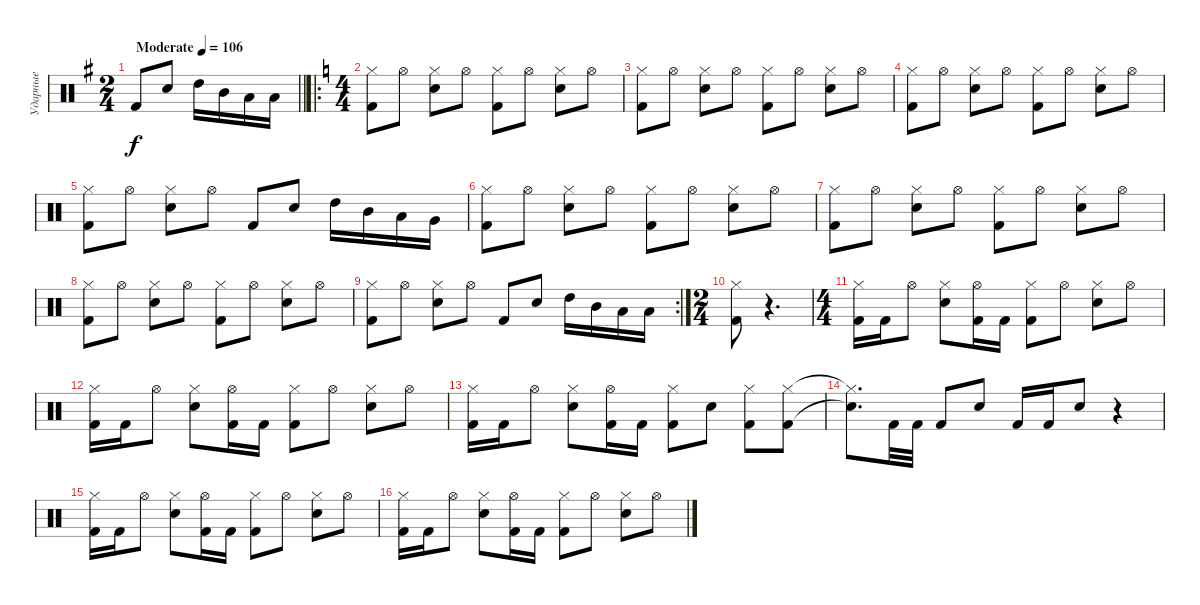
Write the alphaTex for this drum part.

\track ("Ударные" "Ударные") {instrument percussion}
\staff {score}
\articulation defaults
\ts (2 4)
\tempo (106 "Moderate")
\clef neutral
\barLineRight lightlight
\ks g "Kick (hit) 2".8{dy f} "Electric Snare (hit)".8 "High Tom (hit)".16 "Mid Tom (hit)".16 "Low Tom (hit)".16 "Low Tom (hit)".16
|
\ro
\ts (4 4)
\ks c
("Hi-Hat (closed)" "Kick (hit) 2").8 "Hi-Hat (open)".8 ("Hi-Hat (closed)" "Electric Snare (hit)").8 "Hi-Hat (open)".8 ("Hi-Hat (closed)" "Kick (hit) 2").8 "Hi-Hat (open)".8 ("Hi-Hat (closed)" "Electric Snare (hit)").8 "Hi-Hat (open)".8 |
("Hi-Hat (closed)" "Kick (hit) 2").8 "Hi-Hat (open)".8 ("Hi-Hat (closed)" "Electric Snare (hit)").8 "Hi-Hat (open)".8 ("Hi-Hat (closed)" "Kick (hit) 2").8 "Hi-Hat (open)".8 ("Hi-Hat (closed)" "Electric Snare (hit)").8 "Hi-Hat (open)".8 |
("Hi-Hat (closed)" "Kick (hit) 2").8 "Hi-Hat (open)".8 ("Hi-Hat (closed)" "Electric Snare (hit)").8 "Hi-Hat (open)".8 ("Hi-Hat (closed)" "Kick (hit) 2").8 "Hi-Hat (open)".8 ("Hi-Hat (closed)" "Electric Snare (hit)").8 "Hi-Hat (open)".8 |
("Hi-Hat (closed)" "Kick (hit) 2").8 "Hi-Hat (open)".8 ("Hi-Hat (closed)" "Electric Snare (hit)").8 "Hi-Hat (open)".8 "Kick (hit) 2".8 "Electric Snare (hit)".8 "High Tom (hit)".16 "Mid Tom (hit)".16 "Low Tom (hit)".16 "Very Low Tom (hit)".16 |
("Hi-Hat (closed)" "Kick (hit) 2").8 "Hi-Hat (open)".8 ("Hi-Hat (closed)" "Electric Snare (hit)").8 "Hi-Hat (open)".8 ("Hi-Hat (closed)" "Kick (hit) 2").8 "Hi-Hat (open)".8 ("Hi-Hat (closed)" "Electric Snare (hit)").8 "Hi-Hat (open)".8 |
("Hi-Hat (closed)" "Kick (hit) 2").8 "Hi-Hat (open)".8 ("Hi-Hat (closed)" "Electric Snare (hit)").8 "Hi-Hat (open)".8 ("Hi-Hat (closed)" "Kick (hit) 2").8 "Hi-Hat (open)".8 ("Hi-Hat (closed)" "Electric Snare (hit)").8 "Hi-Hat (open)".8 |
("Hi-Hat (closed)" "Kick (hit) 2").8 "Hi-Hat (open)".8 ("Hi-Hat (closed)" "Electric Snare (hit)").8 "Hi-Hat (open)".8 ("Hi-Hat (closed)" "Kick (hit) 2").8 "Hi-Hat (open)".8 ("Hi-Hat (closed)" "Electric Snare (hit)").8 "Hi-Hat (open)".8 |
\rc 2
("Hi-Hat (closed)" "Kick (hit) 2").8 "Hi-Hat (open)".8 ("Hi-Hat (closed)" "Electric Snare (hit)").8 "Hi-Hat (open)".8 "Kick (hit) 2".8 "Electric Snare (hit)".8 "High Tom (hit)".16 "Mid Tom (hit)".16 "Low Tom (hit)".16 "Low Tom (hit)".16 |
\ts (2 4)
("Hi-Hat (closed)" "Kick (hit) 2").8 r.4{d} |
\ts (4 4)
("Hi-Hat (closed)" "Kick (hit) 2").16 "Kick (hit) 2".16 "Hi-Hat (open)".8 ("Hi-Hat (closed)" "Electric Snare (hit)").8 ("Kick (hit) 2" "Hi-Hat (open)").16 "Kick (hit) 2".16 ("Hi-Hat (closed)" "Kick (hit) 2").8 "Hi-Hat (open)".8 ("Hi-Hat (closed)" "Electric Snare (hit)").8 "Hi-Hat (open)".8 |
("Hi-Hat (closed)" "Kick (hit) 2").16 "Kick (hit) 2".16 "Hi-Hat (open)".8 ("Hi-Hat (closed)" "Electric Snare (hit)").8 ("Kick (hit) 2" "Hi-Hat (open)").16 "Kick (hit) 2".16 ("Hi-Hat (closed)" "Kick (hit) 2").8 "Hi-Hat (open)".8 ("Hi-Hat (closed)" "Electric Snare (hit)").8 "Hi-Hat (open)".8 |
("Hi-Hat (closed)" "Kick (hit) 2").16 "Kick (hit) 2".16 "Hi-Hat (open)".8 ("Hi-Hat (closed)" "Electric Snare (hit)").8 ("Kick (hit) 2" "Hi-Hat (open)").16 "Kick (hit) 2".16 ("Hi-Hat (closed)" "Kick (hit) 2").8 "Electric Snare (hit)".8 ("Hi-Hat (closed)" "Kick (hit) 2").8 ("Hi-Hat (closed)" "Kick (hit) 2").8 |
("Hi-Hat (closed)"{t} "Electric Snare (hit)"{t}).8{d} "Kick (hit) 2".32 "Kick (hit) 2".32 "Kick (hit) 2".8 "Electric Snare (hit)".8 "Kick (hit) 2".16 "Kick (hit) 2".16 "Electric Snare (hit)".8 r.4 |
("Hi-Hat (closed)" "Kick (hit) 2").16 "Kick (hit) 2".16 "Hi-Hat (open)".8 ("Hi-Hat (closed)" "Electric Snare (hit)").8 ("Kick (hit) 2" "Hi-Hat (open)").16 "Kick (hit) 2".16 ("Hi-Hat (closed)" "Kick (hit) 2").8 "Hi-Hat (open)".8 ("Hi-Hat (closed)" "Electric Snare (hit)").8 "Hi-Hat (open)".8 |
("Hi-Hat (closed)" "Kick (hit) 2").16 "Kick (hit) 2".16 "Hi-Hat (open)".8 ("Hi-Hat (closed)" "Electric Snare (hit)").8 ("Kick (hit) 2" "Hi-Hat (open)").16 "Kick (hit) 2".16 ("Hi-Hat (closed)" "Kick (hit) 2").8 "Hi-Hat (open)".8 ("Hi-Hat (closed)" "Electric Snare (hit)").8 "Hi-Hat (open)".8
